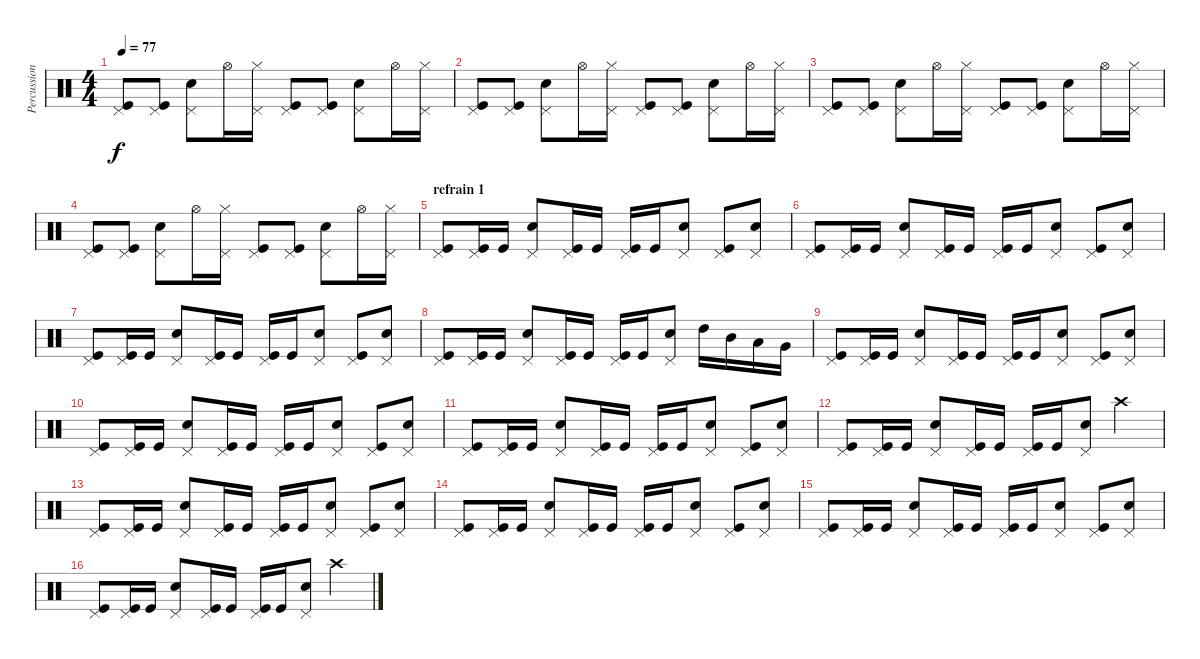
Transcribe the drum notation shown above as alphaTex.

\track ("Percussions" "Percussion") {instrument percussion}
\staff {score}
\articulation defaults
\ts (4 4)
\tempo 77
\clef neutral
\ks c
("Pedal Hi-Hat (hit)" "Kick (hit)").8{dy f} ("Pedal Hi-Hat (hit)" "Kick (hit)").8 ("Pedal Hi-Hat (hit)" "Electric Snare (hit)").8 "Hi-Hat (open)".16 ("Hi-Hat (closed)" "Pedal Hi-Hat (hit)").16 ("Pedal Hi-Hat (hit)" "Kick (hit)").8 ("Pedal Hi-Hat (hit)" "Kick (hit)").8 ("Pedal Hi-Hat (hit)" "Electric Snare (hit)").8 "Hi-Hat (open)".16 ("Hi-Hat (closed)" "Pedal Hi-Hat (hit)").16 |
("Pedal Hi-Hat (hit)" "Kick (hit)").8 ("Pedal Hi-Hat (hit)" "Kick (hit)").8 ("Pedal Hi-Hat (hit)" "Electric Snare (hit)").8 "Hi-Hat (open)".16 ("Hi-Hat (closed)" "Pedal Hi-Hat (hit)").16 ("Pedal Hi-Hat (hit)" "Kick (hit)").8 ("Pedal Hi-Hat (hit)" "Kick (hit)").8 ("Pedal Hi-Hat (hit)" "Electric Snare (hit)").8 "Hi-Hat (open)".16 ("Hi-Hat (closed)" "Pedal Hi-Hat (hit)").16 |
("Pedal Hi-Hat (hit)" "Kick (hit)").8 ("Pedal Hi-Hat (hit)" "Kick (hit)").8 ("Pedal Hi-Hat (hit)" "Electric Snare (hit)").8 "Hi-Hat (open)".16 ("Hi-Hat (closed)" "Pedal Hi-Hat (hit)").16 ("Pedal Hi-Hat (hit)" "Kick (hit)").8 ("Pedal Hi-Hat (hit)" "Kick (hit)").8 ("Pedal Hi-Hat (hit)" "Electric Snare (hit)").8 "Hi-Hat (open)".16 ("Hi-Hat (closed)" "Pedal Hi-Hat (hit)").16 |
("Pedal Hi-Hat (hit)" "Kick (hit)").8 ("Pedal Hi-Hat (hit)" "Kick (hit)").8 ("Pedal Hi-Hat (hit)" "Electric Snare (hit)").8 "Hi-Hat (open)".16 ("Hi-Hat (closed)" "Pedal Hi-Hat (hit)").16 ("Pedal Hi-Hat (hit)" "Kick (hit)").8 ("Pedal Hi-Hat (hit)" "Kick (hit)").8 ("Pedal Hi-Hat (hit)" "Electric Snare (hit)").8 "Hi-Hat (open)".16 ("Hi-Hat (closed)" "Pedal Hi-Hat (hit)").16 |
\section ("" "refrain 1")
("Pedal Hi-Hat (hit)" "Kick (hit)").8{volume 14} ("Pedal Hi-Hat (hit)" "Kick (hit)").16 "Kick (hit)".16 ("Pedal Hi-Hat (hit)" "Electric Snare (hit)").8 ("Pedal Hi-Hat (hit)" "Kick (hit)").16 "Kick (hit)".16 ("Pedal Hi-Hat (hit)" "Kick (hit)").16 "Kick (hit)".16 ("Pedal Hi-Hat (hit)" "Electric Snare (hit)").8 ("Pedal Hi-Hat (hit)" "Kick (hit)").8 ("Pedal Hi-Hat (hit)" "Electric Snare (hit)").8 |
("Pedal Hi-Hat (hit)" "Kick (hit)").8{volume 14} ("Pedal Hi-Hat (hit)" "Kick (hit)").16 "Kick (hit)".16 ("Pedal Hi-Hat (hit)" "Electric Snare (hit)").8 ("Pedal Hi-Hat (hit)" "Kick (hit)").16 "Kick (hit)".16 ("Pedal Hi-Hat (hit)" "Kick (hit)").16 "Kick (hit)".16 ("Pedal Hi-Hat (hit)" "Electric Snare (hit)").8 ("Pedal Hi-Hat (hit)" "Kick (hit)").8 ("Pedal Hi-Hat (hit)" "Electric Snare (hit)").8 |
("Pedal Hi-Hat (hit)" "Kick (hit)").8{volume 14} ("Pedal Hi-Hat (hit)" "Kick (hit)").16 "Kick (hit)".16 ("Pedal Hi-Hat (hit)" "Electric Snare (hit)").8 ("Pedal Hi-Hat (hit)" "Kick (hit)").16 "Kick (hit)".16 ("Pedal Hi-Hat (hit)" "Kick (hit)").16 "Kick (hit)".16 ("Pedal Hi-Hat (hit)" "Electric Snare (hit)").8 ("Pedal Hi-Hat (hit)" "Kick (hit)").8 ("Pedal Hi-Hat (hit)" "Electric Snare (hit)").8 |
("Pedal Hi-Hat (hit)" "Kick (hit)").8{volume 14} ("Pedal Hi-Hat (hit)" "Kick (hit)").16 "Kick (hit)".16 ("Pedal Hi-Hat (hit)" "Electric Snare (hit)").8 ("Pedal Hi-Hat (hit)" "Kick (hit)").16 "Kick (hit)".16 ("Pedal Hi-Hat (hit)" "Kick (hit)").16 "Kick (hit)".16 ("Pedal Hi-Hat (hit)" "Electric Snare (hit)").8 "High Tom (hit)".16 "Mid Tom (hit)".16 "Low Tom (hit)".16 "Very Low Tom (hit)".16 |
("Pedal Hi-Hat (hit)" "Kick (hit)").8{volume 14} ("Pedal Hi-Hat (hit)" "Kick (hit)").16 "Kick (hit)".16 ("Pedal Hi-Hat (hit)" "Electric Snare (hit)").8 ("Pedal Hi-Hat (hit)" "Kick (hit)").16 "Kick (hit)".16 ("Pedal Hi-Hat (hit)" "Kick (hit)").16 "Kick (hit)".16 ("Pedal Hi-Hat (hit)" "Electric Snare (hit)").8 ("Pedal Hi-Hat (hit)" "Kick (hit)").8 ("Pedal Hi-Hat (hit)" "Electric Snare (hit)").8 |
("Pedal Hi-Hat (hit)" "Kick (hit)").8{volume 14} ("Pedal Hi-Hat (hit)" "Kick (hit)").16 "Kick (hit)".16 ("Pedal Hi-Hat (hit)" "Electric Snare (hit)").8 ("Pedal Hi-Hat (hit)" "Kick (hit)").16 "Kick (hit)".16 ("Pedal Hi-Hat (hit)" "Kick (hit)").16 "Kick (hit)".16 ("Pedal Hi-Hat (hit)" "Electric Snare (hit)").8 ("Pedal Hi-Hat (hit)" "Kick (hit)").8 ("Pedal Hi-Hat (hit)" "Electric Snare (hit)").8 |
("Pedal Hi-Hat (hit)" "Kick (hit)").8{volume 14} ("Pedal Hi-Hat (hit)" "Kick (hit)").16 "Kick (hit)".16 ("Pedal Hi-Hat (hit)" "Electric Snare (hit)").8 ("Pedal Hi-Hat (hit)" "Kick (hit)").16 "Kick (hit)".16 ("Pedal Hi-Hat (hit)" "Kick (hit)").16 "Kick (hit)".16 ("Pedal Hi-Hat (hit)" "Electric Snare (hit)").8 ("Pedal Hi-Hat (hit)" "Kick (hit)").8 ("Pedal Hi-Hat (hit)" "Electric Snare (hit)").8 |
("Pedal Hi-Hat (hit)" "Kick (hit)").8{volume 14} ("Pedal Hi-Hat (hit)" "Kick (hit)").16 "Kick (hit)".16 ("Pedal Hi-Hat (hit)" "Electric Snare (hit)").8 ("Pedal Hi-Hat (hit)" "Kick (hit)").16 "Kick (hit)".16 ("Pedal Hi-Hat (hit)" "Kick (hit)").16 "Kick (hit)".16 ("Pedal Hi-Hat (hit)" "Electric Snare (hit)").8 "Crash high (hit)".4 |
("Pedal Hi-Hat (hit)" "Kick (hit)").8{volume 14} ("Pedal Hi-Hat (hit)" "Kick (hit)").16 "Kick (hit)".16 ("Pedal Hi-Hat (hit)" "Electric Snare (hit)").8 ("Pedal Hi-Hat (hit)" "Kick (hit)").16 "Kick (hit)".16 ("Pedal Hi-Hat (hit)" "Kick (hit)").16 "Kick (hit)".16 ("Pedal Hi-Hat (hit)" "Electric Snare (hit)").8 ("Pedal Hi-Hat (hit)" "Kick (hit)").8 ("Pedal Hi-Hat (hit)" "Electric Snare (hit)").8 |
("Pedal Hi-Hat (hit)" "Kick (hit)").8{volume 14} ("Pedal Hi-Hat (hit)" "Kick (hit)").16 "Kick (hit)".16 ("Pedal Hi-Hat (hit)" "Electric Snare (hit)").8 ("Pedal Hi-Hat (hit)" "Kick (hit)").16 "Kick (hit)".16 ("Pedal Hi-Hat (hit)" "Kick (hit)").16 "Kick (hit)".16 ("Pedal Hi-Hat (hit)" "Electric Snare (hit)").8 ("Pedal Hi-Hat (hit)" "Kick (hit)").8 ("Pedal Hi-Hat (hit)" "Electric Snare (hit)").8 |
("Pedal Hi-Hat (hit)" "Kick (hit)").8{volume 14} ("Pedal Hi-Hat (hit)" "Kick (hit)").16 "Kick (hit)".16 ("Pedal Hi-Hat (hit)" "Electric Snare (hit)").8 ("Pedal Hi-Hat (hit)" "Kick (hit)").16 "Kick (hit)".16 ("Pedal Hi-Hat (hit)" "Kick (hit)").16 "Kick (hit)".16 ("Pedal Hi-Hat (hit)" "Electric Snare (hit)").8 ("Pedal Hi-Hat (hit)" "Kick (hit)").8 ("Pedal Hi-Hat (hit)" "Electric Snare (hit)").8 |
("Pedal Hi-Hat (hit)" "Kick (hit)").8{volume 14} ("Pedal Hi-Hat (hit)" "Kick (hit)").16 "Kick (hit)".16 ("Pedal Hi-Hat (hit)" "Electric Snare (hit)").8 ("Pedal Hi-Hat (hit)" "Kick (hit)").16 "Kick (hit)".16 ("Pedal Hi-Hat (hit)" "Kick (hit)").16 "Kick (hit)".16 ("Pedal Hi-Hat (hit)" "Electric Snare (hit)").8 "Crash high (hit)".4
